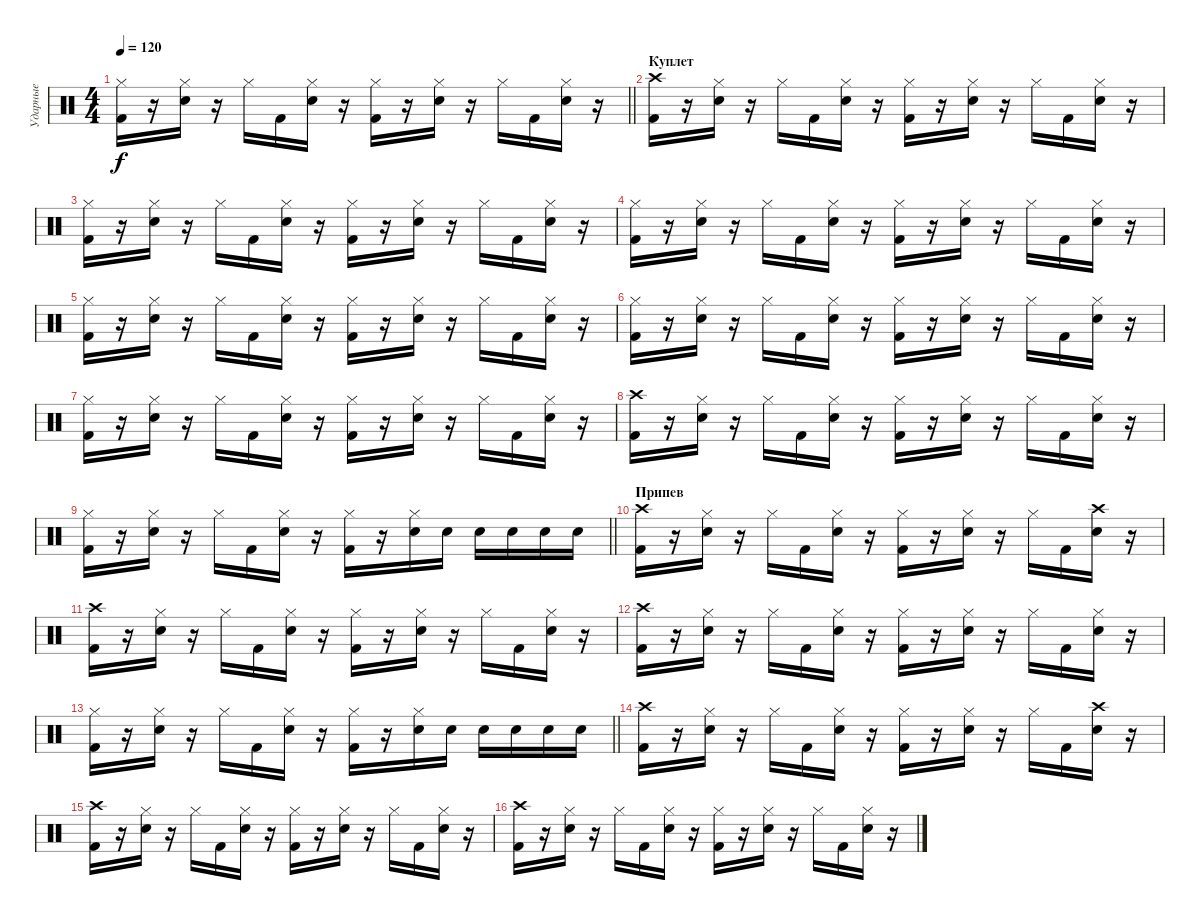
\track ("Ударные" "Ударные") {instrument percussion}
\staff {score}
\articulation defaults
\ts (4 4)
\tempo 120
\clef neutral
\barLineRight lightlight
\ks c
("Kick (hit) 2" "Hi-Hat (closed)").16{dy f} r.16 ("Electric Snare (hit)" "Hi-Hat (closed)").16 r.16 "Hi-Hat (closed)".16 "Kick (hit) 2".16 ("Electric Snare (hit)" "Hi-Hat (closed)").16 r.16 ("Kick (hit) 2" "Hi-Hat (closed)").16 r.16 ("Electric Snare (hit)" "Hi-Hat (closed)").16 r.16 "Hi-Hat (closed)".16 "Kick (hit) 2".16 ("Electric Snare (hit)" "Hi-Hat (closed)").16 r.16 |
\section ("" "Куплет")
("Kick (hit) 2" "Crash high (hit)").16 r.16 ("Electric Snare (hit)" "Hi-Hat (closed)").16 r.16 "Hi-Hat (closed)".16 "Kick (hit) 2".16 ("Electric Snare (hit)" "Hi-Hat (closed)").16 r.16 ("Kick (hit) 2" "Hi-Hat (closed)").16 r.16 ("Electric Snare (hit)" "Hi-Hat (closed)").16 r.16 "Hi-Hat (closed)".16 "Kick (hit) 2".16 ("Electric Snare (hit)" "Hi-Hat (closed)").16 r.16 |
("Kick (hit) 2" "Hi-Hat (closed)").16 r.16 ("Electric Snare (hit)" "Hi-Hat (closed)").16 r.16 "Hi-Hat (closed)".16 "Kick (hit) 2".16 ("Electric Snare (hit)" "Hi-Hat (closed)").16 r.16 ("Kick (hit) 2" "Hi-Hat (closed)").16 r.16 ("Electric Snare (hit)" "Hi-Hat (closed)").16 r.16 "Hi-Hat (closed)".16 "Kick (hit) 2".16 ("Electric Snare (hit)" "Hi-Hat (closed)").16 r.16 |
("Kick (hit) 2" "Hi-Hat (closed)").16 r.16 ("Electric Snare (hit)" "Hi-Hat (closed)").16 r.16 "Hi-Hat (closed)".16 "Kick (hit) 2".16 ("Electric Snare (hit)" "Hi-Hat (closed)").16 r.16 ("Kick (hit) 2" "Hi-Hat (closed)").16 r.16 ("Electric Snare (hit)" "Hi-Hat (closed)").16 r.16 "Hi-Hat (closed)".16 "Kick (hit) 2".16 ("Electric Snare (hit)" "Hi-Hat (closed)").16 r.16 |
("Kick (hit) 2" "Hi-Hat (closed)").16 r.16 ("Electric Snare (hit)" "Hi-Hat (closed)").16 r.16 "Hi-Hat (closed)".16 "Kick (hit) 2".16 ("Electric Snare (hit)" "Hi-Hat (closed)").16 r.16 ("Kick (hit) 2" "Hi-Hat (closed)").16 r.16 ("Electric Snare (hit)" "Hi-Hat (closed)").16 r.16 "Hi-Hat (closed)".16 "Kick (hit) 2".16 ("Electric Snare (hit)" "Hi-Hat (closed)").16 r.16 |
("Kick (hit) 2" "Hi-Hat (closed)").16 r.16 ("Electric Snare (hit)" "Hi-Hat (closed)").16 r.16 "Hi-Hat (closed)".16 "Kick (hit) 2".16 ("Electric Snare (hit)" "Hi-Hat (closed)").16 r.16 ("Kick (hit) 2" "Hi-Hat (closed)").16 r.16 ("Electric Snare (hit)" "Hi-Hat (closed)").16 r.16 "Hi-Hat (closed)".16 "Kick (hit) 2".16 ("Electric Snare (hit)" "Hi-Hat (closed)").16 r.16 |
("Kick (hit) 2" "Hi-Hat (closed)").16 r.16 ("Electric Snare (hit)" "Hi-Hat (closed)").16 r.16 "Hi-Hat (closed)".16 "Kick (hit) 2".16 ("Electric Snare (hit)" "Hi-Hat (closed)").16 r.16 ("Kick (hit) 2" "Hi-Hat (closed)").16 r.16 ("Electric Snare (hit)" "Hi-Hat (closed)").16 r.16 "Hi-Hat (closed)".16 "Kick (hit) 2".16 ("Electric Snare (hit)" "Hi-Hat (closed)").16 r.16 |
("Kick (hit) 2" "Crash high (hit)").16 r.16 ("Electric Snare (hit)" "Hi-Hat (closed)").16 r.16 "Hi-Hat (closed)".16 "Kick (hit) 2".16 ("Electric Snare (hit)" "Hi-Hat (closed)").16 r.16 ("Kick (hit) 2" "Hi-Hat (closed)").16 r.16 ("Electric Snare (hit)" "Hi-Hat (closed)").16 r.16 "Hi-Hat (closed)".16 "Kick (hit) 2".16 ("Electric Snare (hit)" "Hi-Hat (closed)").16 r.16 |
\barLineRight lightlight
("Kick (hit) 2" "Hi-Hat (closed)").16 r.16 ("Electric Snare (hit)" "Hi-Hat (closed)").16 r.16 "Hi-Hat (closed)".16 "Kick (hit) 2".16 ("Electric Snare (hit)" "Hi-Hat (closed)").16 r.16 ("Kick (hit) 2" "Hi-Hat (closed)").16 r.16 ("Electric Snare (hit)" "Hi-Hat (closed)").16 "Electric Snare (hit)".16 "Electric Snare (hit)".16 "Electric Snare (hit)".16 "Electric Snare (hit)".16 "Electric Snare (hit)".16 |
\section ("" "Припев")
("Kick (hit) 2" "Crash high (hit)").16 r.16 ("Electric Snare (hit)" "Hi-Hat (closed)").16 r.16 "Hi-Hat (closed)".16 "Kick (hit) 2".16 ("Electric Snare (hit)" "Hi-Hat (closed)").16 r.16 ("Kick (hit) 2" "Hi-Hat (closed)").16 r.16 ("Electric Snare (hit)" "Hi-Hat (closed)").16 r.16 "Hi-Hat (closed)".16 "Kick (hit) 2".16 ("Electric Snare (hit)" "Crash high (hit)").16 r.16 |
("Kick (hit) 2" "Crash high (hit)").16 r.16 ("Electric Snare (hit)" "Hi-Hat (closed)").16 r.16 "Hi-Hat (closed)".16 "Kick (hit) 2".16 ("Electric Snare (hit)" "Hi-Hat (closed)").16 r.16 ("Kick (hit) 2" "Hi-Hat (closed)").16 r.16 ("Electric Snare (hit)" "Hi-Hat (closed)").16 r.16 "Hi-Hat (closed)".16 "Kick (hit) 2".16 ("Electric Snare (hit)" "Hi-Hat (closed)").16 r.16 |
("Kick (hit) 2" "Crash high (hit)").16 r.16 ("Electric Snare (hit)" "Hi-Hat (closed)").16 r.16 "Hi-Hat (closed)".16 "Kick (hit) 2".16 ("Electric Snare (hit)" "Hi-Hat (closed)").16 r.16 ("Kick (hit) 2" "Hi-Hat (closed)").16 r.16 ("Electric Snare (hit)" "Hi-Hat (closed)").16 r.16 "Hi-Hat (closed)".16 "Kick (hit) 2".16 ("Electric Snare (hit)" "Hi-Hat (closed)").16 r.16 |
\barLineRight lightlight
("Kick (hit) 2" "Hi-Hat (closed)").16 r.16 ("Electric Snare (hit)" "Hi-Hat (closed)").16 r.16 "Hi-Hat (closed)".16 "Kick (hit) 2".16 ("Electric Snare (hit)" "Hi-Hat (closed)").16 r.16 ("Kick (hit) 2" "Hi-Hat (closed)").16 r.16 ("Electric Snare (hit)" "Hi-Hat (closed)").16 "Electric Snare (hit)".16 "Electric Snare (hit)".16 "Electric Snare (hit)".16 "Electric Snare (hit)".16 "Electric Snare (hit)".16 |
("Kick (hit) 2" "Crash high (hit)").16 r.16 ("Electric Snare (hit)" "Hi-Hat (closed)").16 r.16 "Hi-Hat (closed)".16 "Kick (hit) 2".16 ("Electric Snare (hit)" "Hi-Hat (closed)").16 r.16 ("Kick (hit) 2" "Hi-Hat (closed)").16 r.16 ("Electric Snare (hit)" "Hi-Hat (closed)").16 r.16 "Hi-Hat (closed)".16 "Kick (hit) 2".16 ("Electric Snare (hit)" "Crash high (hit)").16 r.16 |
("Kick (hit) 2" "Crash high (hit)").16 r.16 ("Electric Snare (hit)" "Hi-Hat (closed)").16 r.16 "Hi-Hat (closed)".16 "Kick (hit) 2".16 ("Electric Snare (hit)" "Hi-Hat (closed)").16 r.16 ("Kick (hit) 2" "Hi-Hat (closed)").16 r.16 ("Electric Snare (hit)" "Hi-Hat (closed)").16 r.16 "Hi-Hat (closed)".16 "Kick (hit) 2".16 ("Electric Snare (hit)" "Hi-Hat (closed)").16 r.16 |
("Kick (hit) 2" "Crash high (hit)").16 r.16 ("Electric Snare (hit)" "Hi-Hat (closed)").16 r.16 "Hi-Hat (closed)".16 "Kick (hit) 2".16 ("Electric Snare (hit)" "Hi-Hat (closed)").16 r.16 ("Kick (hit) 2" "Hi-Hat (closed)").16 r.16 ("Electric Snare (hit)" "Hi-Hat (closed)").16 r.16 "Hi-Hat (closed)".16 "Kick (hit) 2".16 ("Electric Snare (hit)" "Hi-Hat (closed)").16 r.16
